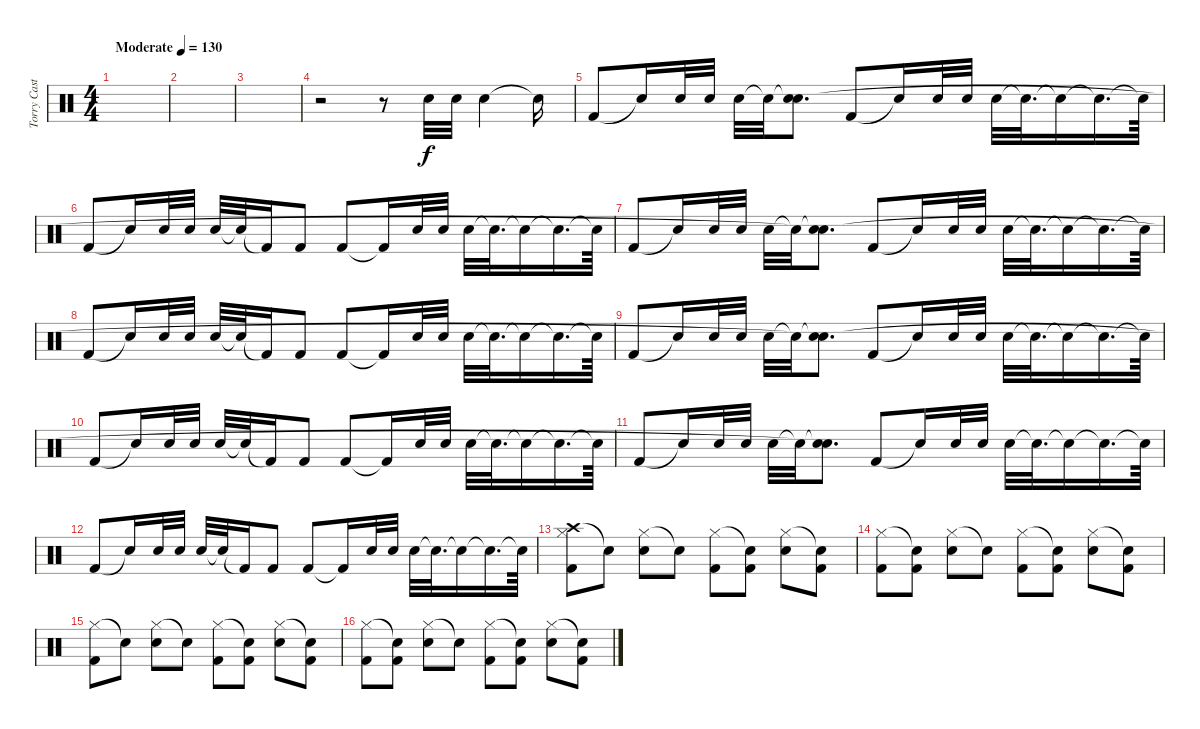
\track ("Torry Castellano" "Torry Cast") {instrument percussion}
\staff {score}
\articulation defaults
\ts (4 4)
\tempo (130 "Moderate")
\clef neutral
\ks c
|
|
|
r.2 r.8 "Electric Snare (hit)".32 "Electric Snare (hit)".32 "Electric Snare (hit)".4 "Snare (hit)"{t}.16 |
"Kick (hit) 2".8 "Snare (hit)"{t}.16 "Electric Snare (hit)".32 "Electric Snare (hit)".32 "Electric Snare (hit)".32 "Snare (hit)"{t}.32 ("Snare (hit)"{t} "Snare (hit)").8{d} "Kick (hit) 2".8 "Snare (hit)"{t}.16 "Electric Snare (hit)".32 "Electric Snare (hit)".32 "Electric Snare (hit)".32 "Snare (hit)"{t}.32{d} "Snare (hit)"{t}.16 "Snare (hit)"{t}.16{d} "Snare (hit)"{t}.64 |
"Kick (hit) 2".8 "Snare (hit)"{t}.16 "Electric Snare (hit)".32 "Electric Snare (hit)".32 "Electric Snare (hit)".32 "Snare (hit)"{t}.32 "Kick (hit) 2"{t}.16 "Kick (hit) 2".8 "Kick (hit) 2".8 "Kick (hit) 2"{t}.16 "Electric Snare (hit)".32 "Electric Snare (hit)".32 "Electric Snare (hit)".32 "Snare (hit)"{t}.32{d} "Snare (hit)"{t}.16 "Snare (hit)"{t}.16{d} "Snare (hit)"{t}.64 |
"Kick (hit) 2".8 "Snare (hit)"{t}.16 "Electric Snare (hit)".32 "Electric Snare (hit)".32 "Electric Snare (hit)".32 "Snare (hit)"{t}.32 ("Snare (hit)"{t} "Snare (hit)"{t}).8{d} "Kick (hit) 2".8 "Snare (hit)"{t}.16 "Electric Snare (hit)".32 "Electric Snare (hit)".32 "Electric Snare (hit)".32 "Snare (hit)"{t}.32{d} "Snare (hit)"{t}.16 "Snare (hit)"{t}.16{d} "Snare (hit)"{t}.64 |
"Kick (hit) 2".8 "Snare (hit)"{t}.16 "Electric Snare (hit)".32 "Electric Snare (hit)".32 "Electric Snare (hit)".32 "Snare (hit)"{t}.32 "Kick (hit) 2"{t}.16 "Kick (hit) 2".8 "Kick (hit) 2".8 "Kick (hit) 2"{t}.16 "Electric Snare (hit)".32 "Electric Snare (hit)".32 "Electric Snare (hit)".32 "Snare (hit)"{t}.32{d} "Snare (hit)"{t}.16 "Snare (hit)"{t}.16{d} "Snare (hit)"{t}.64 |
"Kick (hit) 2".8 "Snare (hit)"{t}.16 "Electric Snare (hit)".32 "Electric Snare (hit)".32 "Electric Snare (hit)".32 "Snare (hit)"{t}.32 ("Snare (hit)"{t} "Snare (hit)"{t}).8{d} "Kick (hit) 2".8 "Snare (hit)"{t}.16 "Electric Snare (hit)".32 "Electric Snare (hit)".32 "Electric Snare (hit)".32 "Snare (hit)"{t}.32{d} "Snare (hit)"{t}.16 "Snare (hit)"{t}.16{d} "Snare (hit)"{t}.64 |
"Kick (hit) 2".8 "Snare (hit)"{t}.16 "Electric Snare (hit)".32 "Electric Snare (hit)".32 "Electric Snare (hit)".32 "Snare (hit)"{t}.32 "Kick (hit) 2"{t}.16 "Kick (hit) 2".8 "Kick (hit) 2".8 "Kick (hit) 2"{t}.16 "Electric Snare (hit)".32 "Electric Snare (hit)".32 "Electric Snare (hit)".32 "Snare (hit)"{t}.32{d} "Snare (hit)"{t}.16 "Snare (hit)"{t}.16{d} "Snare (hit)"{t}.64 |
"Kick (hit) 2".8 "Snare (hit)"{t}.16 "Electric Snare (hit)".32 "Electric Snare (hit)".32 "Electric Snare (hit)".32 "Snare (hit)"{t}.32 ("Snare (hit)"{t} "Snare (hit)"{t}).8{d} "Kick (hit) 2".8 "Snare (hit)"{t}.16 "Electric Snare (hit)".32 "Electric Snare (hit)".32 "Electric Snare (hit)".32 "Snare (hit)"{t}.32{d} "Snare (hit)"{t}.16 "Snare (hit)"{t}.16{d} "Snare (hit)"{t}.64 |
"Kick (hit) 2".8 "Snare (hit)"{t}.16 "Electric Snare (hit)".32 "Electric Snare (hit)".32 "Electric Snare (hit)".32 "Snare (hit)"{t}.32 "Kick (hit) 2"{t}.16 "Kick (hit) 2".8 "Kick (hit) 2".8 "Kick (hit) 2"{t}.16 "Electric Snare (hit)".32 "Electric Snare (hit)".32 "Electric Snare (hit)".32 "Snare (hit)"{t}.32{d} "Snare (hit)"{t}.16 "Snare (hit)"{t}.16{d} "Snare (hit)"{t}.64 |
("Crash high (hit)" "Hi-Hat (closed)" "Kick (hit) 2").8 "Snare (hit)"{t}.8 ("Hi-Hat (closed)" "Electric Snare (hit)").8 "Snare (hit)"{t}.8 ("Hi-Hat (closed)" "Kick (hit) 2").8 ("Snare (hit)"{t} "Kick (hit) 2").8 ("Hi-Hat (closed)" "Electric Snare (hit)").8 ("Snare (hit)"{t} "Kick (hit) 2").8 |
("Hi-Hat (closed)" "Kick (hit) 2").8 ("Snare (hit)"{t} "Kick (hit) 2").8 ("Hi-Hat (closed)" "Electric Snare (hit)").8 "Snare (hit)"{t}.8 ("Hi-Hat (closed)" "Kick (hit) 2").8 ("Snare (hit)"{t} "Kick (hit) 2").8 ("Hi-Hat (closed)" "Electric Snare (hit)").8 ("Snare (hit)"{t} "Kick (hit) 2").8 |
("Hi-Hat (closed)" "Kick (hit) 2").8 "Snare (hit)"{t}.8 ("Hi-Hat (closed)" "Electric Snare (hit)").8 "Snare (hit)"{t}.8 ("Hi-Hat (closed)" "Kick (hit) 2").8 ("Snare (hit)"{t} "Kick (hit) 2").8 ("Hi-Hat (closed)" "Electric Snare (hit)").8 ("Snare (hit)"{t} "Kick (hit) 2").8 |
("Hi-Hat (closed)" "Kick (hit) 2").8 ("Snare (hit)"{t} "Kick (hit) 2").8 ("Hi-Hat (closed)" "Electric Snare (hit)").8 "Snare (hit)"{t}.8 ("Hi-Hat (closed)" "Kick (hit) 2").8 ("Snare (hit)"{t} "Kick (hit) 2").8 ("Hi-Hat (closed)" "Electric Snare (hit)").8 ("Snare (hit)"{t} "Kick (hit) 2").8
